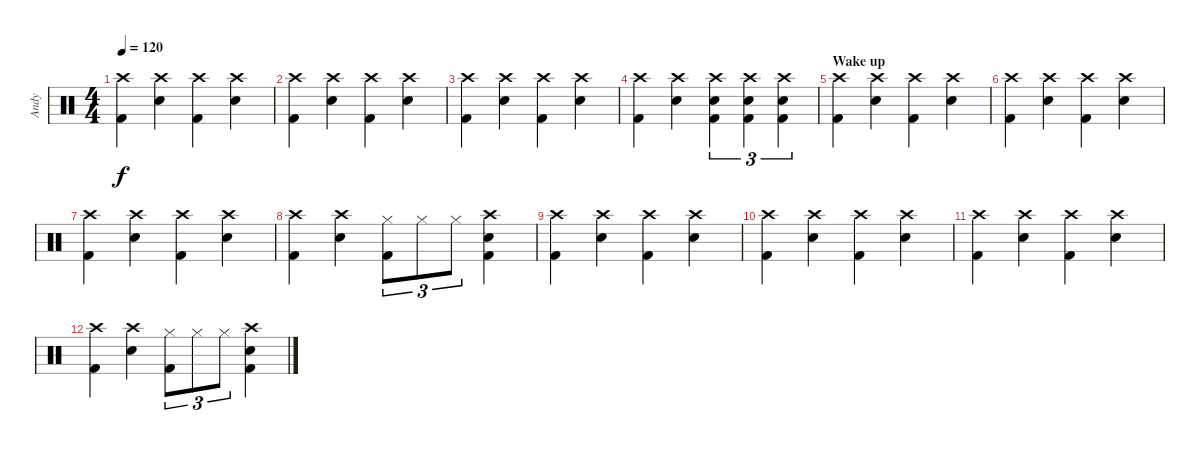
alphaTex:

\track ("Andy" "Andy") {instrument percussion}
\staff {score}
\articulation defaults
\ts (4 4)
\tempo 120
\clef neutral
\ks c
("Crash high (hit)" "Kick (hit) 2").4{dy f} ("Crash high (hit)" "Snare (hit) 2").4 ("Crash high (hit)" "Kick (hit) 2").4 ("Crash high (hit)" "Snare (hit) 2").4 |
("Crash high (hit)" "Kick (hit) 2").4 ("Crash high (hit)" "Snare (hit) 2").4 ("Crash high (hit)" "Kick (hit) 2").4 ("Crash high (hit)" "Snare (hit) 2").4 |
("Crash high (hit)" "Kick (hit) 2").4 ("Crash high (hit)" "Snare (hit) 2").4 ("Crash high (hit)" "Kick (hit) 2").4 ("Crash high (hit)" "Snare (hit) 2").4 |
("Crash high (hit)" "Kick (hit) 2").4 ("Crash high (hit)" "Snare (hit) 2").4 ("Crash high (hit)" "Snare (hit) 2" "Kick (hit) 2").4{tu (3 2)} ("Crash high (hit)" "Snare (hit) 2" "Kick (hit) 2").4{tu (3 2)} ("Crash high (hit)" "Snare (hit) 2" "Kick (hit) 2").4{tu (3 2)} |
\section ("" "Wake up")
("Crash high (hit)" "Kick (hit) 2").4 ("Crash high (hit)" "Snare (hit) 2").4 ("Crash high (hit)" "Kick (hit) 2").4 ("Crash high (hit)" "Snare (hit) 2").4 |
("Crash high (hit)" "Kick (hit) 2").4 ("Crash high (hit)" "Snare (hit) 2").4 ("Crash high (hit)" "Kick (hit) 2").4 ("Crash high (hit)" "Snare (hit) 2").4 |
("Crash high (hit)" "Kick (hit) 2").4 ("Crash high (hit)" "Snare (hit) 2").4 ("Crash high (hit)" "Kick (hit) 2").4 ("Crash high (hit)" "Snare (hit) 2").4 |
("Crash high (hit)" "Kick (hit) 2").4 ("Crash high (hit)" "Snare (hit) 2").4 ("Hi-Hat (closed)" "Kick (hit) 2").8{tu (3 2)} "Hi-Hat (closed)".8{tu (3 2)} "Hi-Hat (closed)".8{tu (3 2)} ("Crash high (hit)" "Snare (hit) 2" "Kick (hit) 2").4 |
("Crash high (hit)" "Kick (hit) 2").4 ("Crash high (hit)" "Snare (hit) 2").4 ("Crash high (hit)" "Kick (hit) 2").4 ("Crash high (hit)" "Snare (hit) 2").4 |
("Crash high (hit)" "Kick (hit) 2").4 ("Crash high (hit)" "Snare (hit) 2").4 ("Crash high (hit)" "Kick (hit) 2").4 ("Crash high (hit)" "Snare (hit) 2").4 |
("Crash high (hit)" "Kick (hit) 2").4 ("Crash high (hit)" "Snare (hit) 2").4 ("Crash high (hit)" "Kick (hit) 2").4 ("Crash high (hit)" "Snare (hit) 2").4 |
("Crash high (hit)" "Kick (hit) 2").4 ("Crash high (hit)" "Snare (hit) 2").4 ("Hi-Hat (closed)" "Kick (hit) 2").8{tu (3 2)} "Hi-Hat (closed)".8{tu (3 2)} "Hi-Hat (closed)".8{tu (3 2)} ("Crash high (hit)" "Snare (hit) 2" "Kick (hit) 2").4
